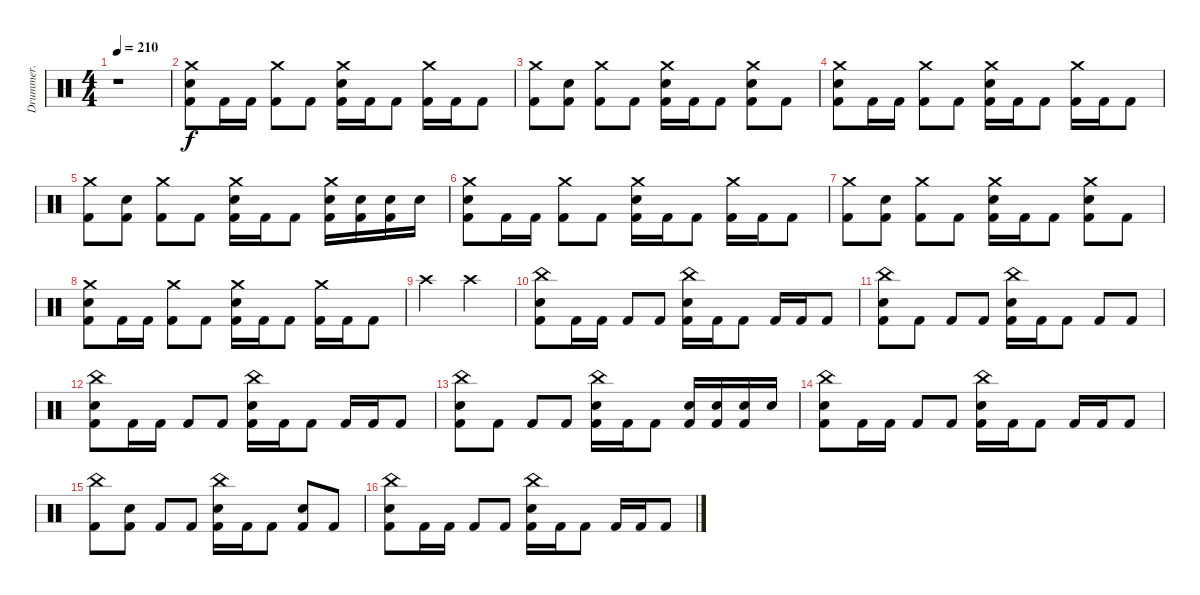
\track ("Drummer." "Drummer.") {instrument percussion}
\staff {score}
\articulation defaults
\ts (4 4)
\tempo 210
\clef neutral
\ks c
r.1{dy f} |
("Crash medium (hit)" "Snare (hit) 2" "Kick (hit) 2").8 "Kick (hit) 2".16 "Kick (hit) 2".16 ("Crash medium (hit)" "Kick (hit) 2").8 "Kick (hit) 2".8 ("Crash medium (hit)" "Snare (hit) 2" "Kick (hit) 2").16 "Kick (hit) 2".16 "Kick (hit) 2".8 ("Crash medium (hit)" "Kick (hit) 2").16 "Kick (hit) 2".16 "Kick (hit) 2".8 |
("Crash medium (hit)" "Kick (hit) 2").8 ("Snare (hit) 2" "Kick (hit) 2").8 ("Crash medium (hit)" "Kick (hit) 2").8 "Kick (hit) 2".8 ("Crash medium (hit)" "Snare (hit) 2" "Kick (hit) 2").16 "Kick (hit) 2".16 "Kick (hit) 2".8 ("Crash medium (hit)" "Snare (hit) 2" "Kick (hit) 2").8 "Kick (hit) 2".8 |
("Crash medium (hit)" "Snare (hit) 2" "Kick (hit) 2").8 "Kick (hit) 2".16 "Kick (hit) 2".16 ("Crash medium (hit)" "Kick (hit) 2").8 "Kick (hit) 2".8 ("Crash medium (hit)" "Snare (hit) 2" "Kick (hit) 2").16 "Kick (hit) 2".16 "Kick (hit) 2".8 ("Crash medium (hit)" "Kick (hit) 2").16 "Kick (hit) 2".16 "Kick (hit) 2".8 |
("Crash medium (hit)" "Kick (hit) 2").8 ("Snare (hit) 2" "Kick (hit) 2").8 ("Crash medium (hit)" "Kick (hit) 2").8 "Kick (hit) 2".8 ("Crash medium (hit)" "Snare (hit) 2" "Kick (hit) 2").16 "Kick (hit) 2".16 "Kick (hit) 2".8 ("Crash medium (hit)" "Snare (hit) 2" "Kick (hit) 2").16 ("Snare (hit) 2" "Kick (hit) 2").16 ("Snare (hit) 2" "Kick (hit) 2").16 "Snare (hit) 2".16 |
("Crash medium (hit)" "Snare (hit) 2" "Kick (hit) 2").8 "Kick (hit) 2".16 "Kick (hit) 2".16 ("Crash medium (hit)" "Kick (hit) 2").8 "Kick (hit) 2".8 ("Crash medium (hit)" "Snare (hit) 2" "Kick (hit) 2").16 "Kick (hit) 2".16 "Kick (hit) 2".8 ("Crash medium (hit)" "Kick (hit) 2").16 "Kick (hit) 2".16 "Kick (hit) 2".8 |
("Crash medium (hit)" "Kick (hit) 2").8 ("Snare (hit) 2" "Kick (hit) 2").8 ("Crash medium (hit)" "Kick (hit) 2").8 "Kick (hit) 2".8 ("Crash medium (hit)" "Snare (hit) 2" "Kick (hit) 2").16 "Kick (hit) 2".16 "Kick (hit) 2".8 ("Crash medium (hit)" "Snare (hit) 2" "Kick (hit) 2").8 "Kick (hit) 2".8 |
("Crash medium (hit)" "Snare (hit) 2" "Kick (hit) 2").8 "Kick (hit) 2".16 "Kick (hit) 2".16 ("Crash medium (hit)" "Kick (hit) 2").8 "Kick (hit) 2".8 ("Crash medium (hit)" "Snare (hit) 2" "Kick (hit) 2").16 "Kick (hit) 2".16 "Kick (hit) 2".8 ("Crash medium (hit)" "Kick (hit) 2").16 "Kick (hit) 2".16 "Kick (hit) 2".8 |
"Crash high (hit)".2 "Crash high (hit)".2 |
("China (hit)" "Snare (hit) 2" "Kick (hit) 2").8 "Kick (hit) 2".16 "Kick (hit) 2".16 "Kick (hit) 2".8 "Kick (hit) 2".8 ("China (hit)" "Snare (hit) 2" "Kick (hit) 2").16 "Kick (hit) 2".16 "Kick (hit) 2".8 "Kick (hit) 2".16 "Kick (hit) 2".16 "Kick (hit) 2".8 |
("China (hit)" "Snare (hit) 2" "Kick (hit) 2").8 "Kick (hit) 2".8 "Kick (hit) 2".8 "Kick (hit) 2".8 ("China (hit)" "Snare (hit) 2" "Kick (hit) 2").16 "Kick (hit) 2".16 "Kick (hit) 2".8 "Kick (hit) 2".8 "Kick (hit) 2".8 |
("China (hit)" "Snare (hit) 2" "Kick (hit) 2").8 "Kick (hit) 2".16 "Kick (hit) 2".16 "Kick (hit) 2".8 "Kick (hit) 2".8 ("China (hit)" "Snare (hit) 2" "Kick (hit) 2").16 "Kick (hit) 2".16 "Kick (hit) 2".8 "Kick (hit) 2".16 "Kick (hit) 2".16 "Kick (hit) 2".8 |
("China (hit)" "Snare (hit) 2" "Kick (hit) 2").8 "Kick (hit) 2".8 "Kick (hit) 2".8 "Kick (hit) 2".8 ("China (hit)" "Snare (hit) 2" "Kick (hit) 2").16 "Kick (hit) 2".16 "Kick (hit) 2".8 ("Snare (hit) 2" "Kick (hit) 2").16 ("Snare (hit) 2" "Kick (hit) 2").16 ("Snare (hit) 2" "Kick (hit) 2").16 "Snare (hit) 2".16 |
("China (hit)" "Snare (hit) 2" "Kick (hit) 2").8 "Kick (hit) 2".16 "Kick (hit) 2".16 "Kick (hit) 2".8 "Kick (hit) 2".8 ("China (hit)" "Snare (hit) 2" "Kick (hit) 2").16 "Kick (hit) 2".16 "Kick (hit) 2".8 "Kick (hit) 2".16 "Kick (hit) 2".16 "Kick (hit) 2".8 |
("China (hit)" "Kick (hit) 2").8 ("Snare (hit) 2" "Kick (hit) 2").8 "Kick (hit) 2".8 "Kick (hit) 2".8 ("China (hit)" "Snare (hit) 2" "Kick (hit) 2").16 "Kick (hit) 2".16 "Kick (hit) 2".8 ("Snare (hit) 2" "Kick (hit) 2").8 "Kick (hit) 2".8 |
("China (hit)" "Snare (hit) 2" "Kick (hit) 2").8 "Kick (hit) 2".16 "Kick (hit) 2".16 "Kick (hit) 2".8 "Kick (hit) 2".8 ("China (hit)" "Snare (hit) 2" "Kick (hit) 2").16 "Kick (hit) 2".16 "Kick (hit) 2".8 "Kick (hit) 2".16 "Kick (hit) 2".16 "Kick (hit) 2".8
